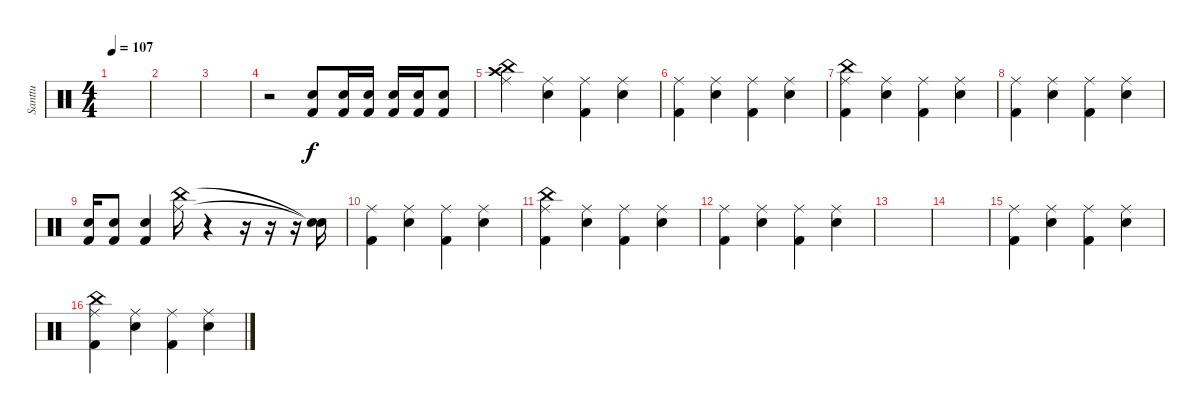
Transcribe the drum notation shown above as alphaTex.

\track ("Santtu" "Santtu") {instrument percussion}
\staff {score}
\articulation defaults
\ts (4 4)
\tempo 107
\clef neutral
\ks c
|
|
|
r.2 ("Kick (hit) 2" "Snare (hit) 2").8 ("Kick (hit) 2" "Snare (hit) 2").16 ("Kick (hit) 2" "Snare (hit) 2").16 ("Kick (hit) 2" "Snare (hit) 2").16 ("Kick (hit) 2" "Snare (hit) 2").16 ("Snare (hit) 2" "Kick (hit) 2").8 |
("Ride (middle)" "Crash high (hit)" "China (hit)").4 ("Ride (middle)" "Snare (hit) 2").4 ("Ride (middle)" "Kick (hit) 2").4 ("Ride (middle)" "Snare (hit) 2").4 |
("Ride (middle)" "Kick (hit) 2").4 ("Ride (middle)" "Snare (hit) 2").4 ("Ride (middle)" "Kick (hit) 2").4 ("Ride (middle)" "Snare (hit) 2").4 |
("Ride (middle)" "Kick (hit) 2" "China (hit)").4 ("Ride (middle)" "Snare (hit) 2").4 ("Ride (middle)" "Kick (hit) 2").4 ("Ride (middle)" "Snare (hit) 2").4 |
("Ride (middle)" "Kick (hit) 2").4 ("Ride (middle)" "Snare (hit) 2").4 ("Ride (middle)" "Kick (hit) 2").4 ("Ride (middle)" "Snare (hit) 2").4 |
("Kick (hit) 2" "Snare (hit) 2").16 ("Kick (hit) 2" "Snare (hit) 2").8 ("Kick (hit) 2" "Snare (hit) 2").4 ("China (hit)" "Ride (middle)").16 r.4 r.16 r.16 r.16 ("Snare (hit)"{t} "Snare (hit)"{t}).16 |
("Ride (middle)" "Kick (hit) 2").4 ("Ride (middle)" "Snare (hit) 2").4 ("Ride (middle)" "Kick (hit) 2").4 ("Ride (middle)" "Snare (hit) 2").4 |
("Ride (middle)" "Kick (hit) 2" "China (hit)").4 ("Ride (middle)" "Snare (hit) 2").4 ("Ride (middle)" "Kick (hit) 2").4 ("Ride (middle)" "Snare (hit) 2").4 |
("Ride (middle)" "Kick (hit) 2").4 ("Ride (middle)" "Snare (hit) 2").4 ("Ride (middle)" "Kick (hit) 2").4 ("Ride (middle)" "Snare (hit) 2").4 |
|
|
("Ride (middle)" "Kick (hit) 2").4 ("Ride (middle)" "Snare (hit) 2").4 ("Ride (middle)" "Kick (hit) 2").4 ("Ride (middle)" "Snare (hit) 2").4 |
("Ride (middle)" "Kick (hit) 2" "China (hit)").4 ("Ride (middle)" "Snare (hit) 2").4 ("Ride (middle)" "Kick (hit) 2").4 ("Ride (middle)" "Snare (hit) 2").4
